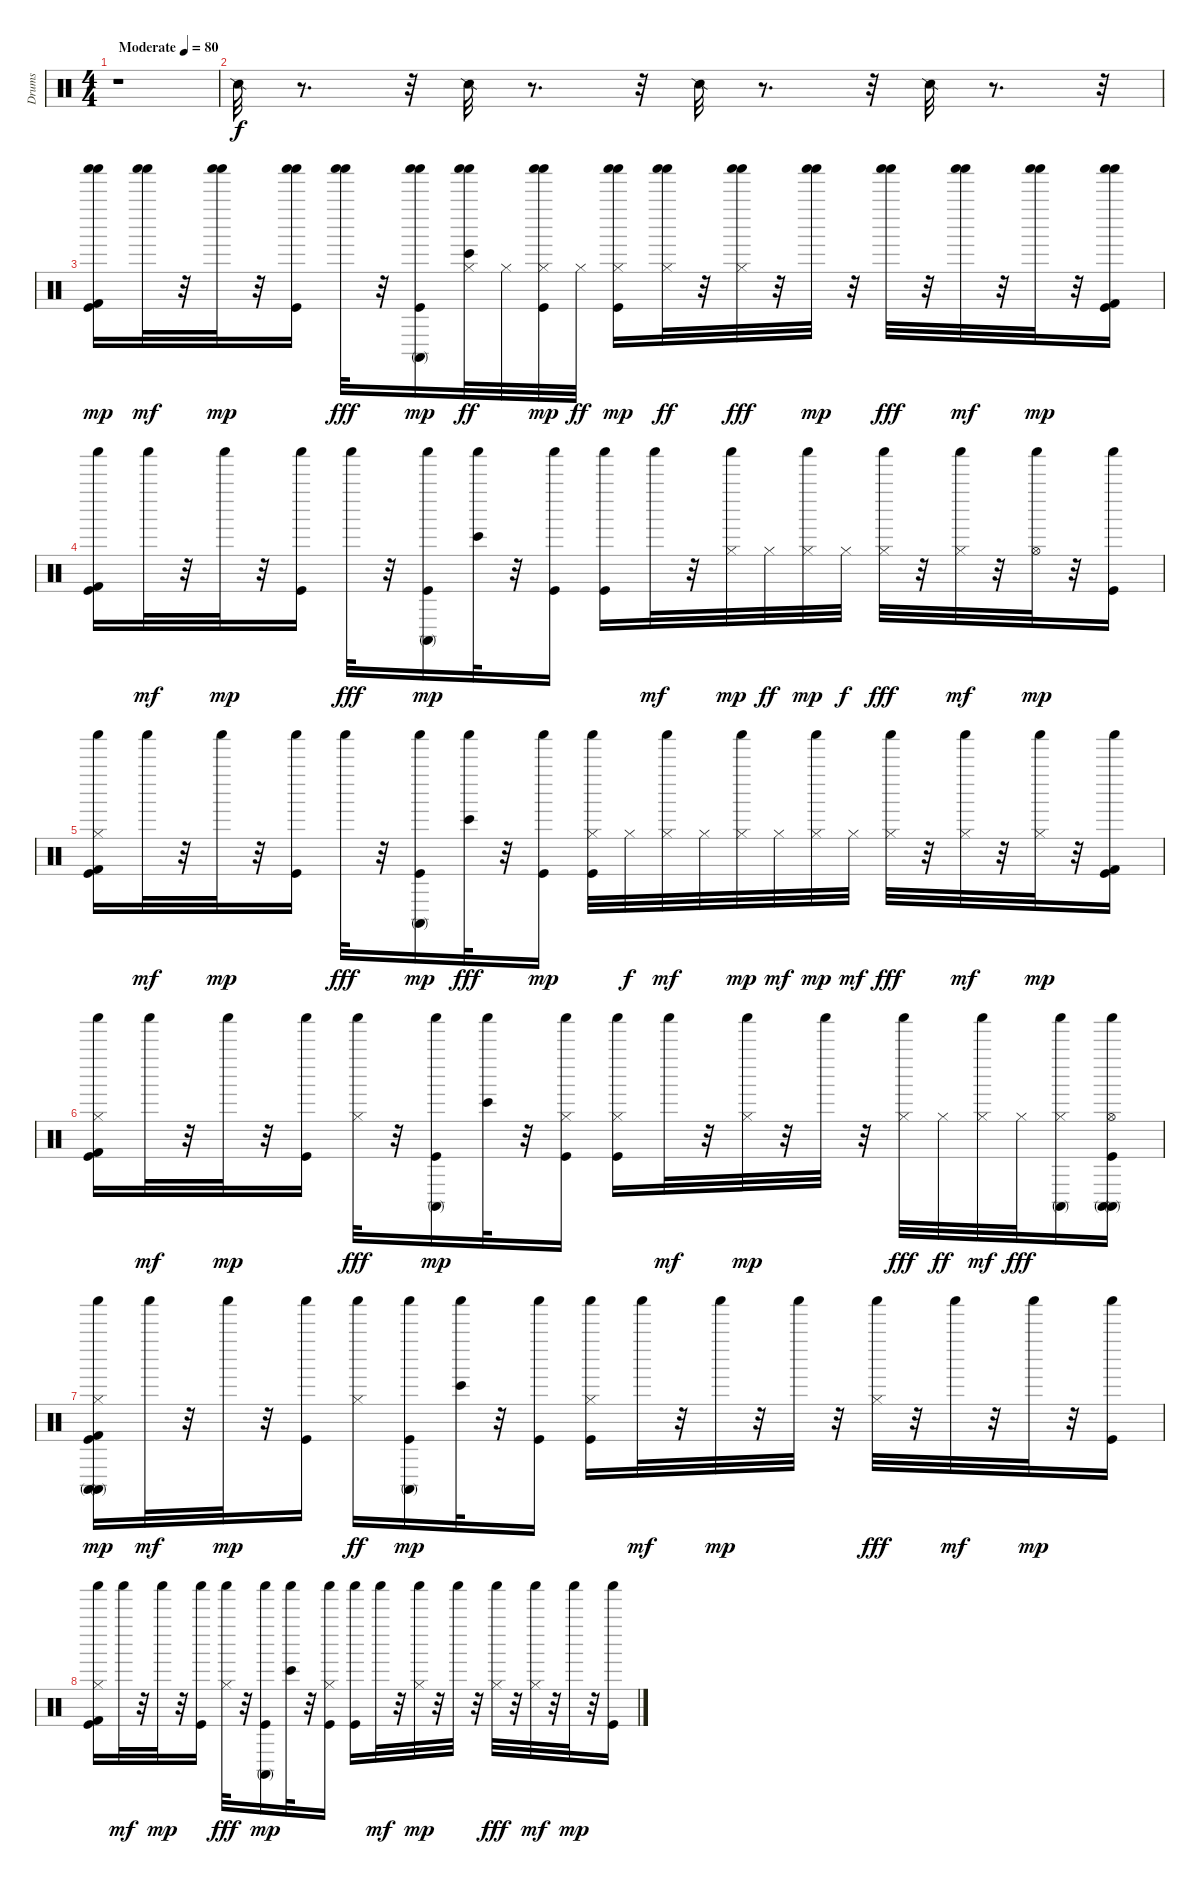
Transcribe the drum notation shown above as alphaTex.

\track ("Drums" "Drums") {instrument percussion}
\staff {score}
\articulation defaults
\ts (4 4)
\tempo (80 "Moderate")
\clef neutral
\ks c
r.1{dy f} |
"Snare (side stick) 2".32 r.8{d} r.32 "Snare (side stick) 2".32 r.8{d} r.32 "Snare (side stick) 2".32 r.8{d} r.32 "Snare (side stick) 2".32 r.8{d} r.32 |
("Shaker (hit)" "Shaker (hit)" "Kick (hit) 2" "Kick (hit)").16{dy mp} ("Shaker (hit)" "Shaker (hit)").32{dy mf} r.32 ("Shaker (hit)" "Shaker (hit)").32{dy mp} r.32 ("Shaker (hit)" "Shaker (hit)" "Kick (hit)").16 ("Shaker (hit)" "Shaker (hit)").32{dy fff} r.32 ("Shaker (hit)" "Shaker (hit)" "Conga high (mute)" "Kick (hit)").16{dy mp} ("Shaker (hit)" "Shaker (hit)" "Bongo High (hit)" "Hi-Hat (closed)").32{dy ff} "Hi-Hat (closed)".32 ("Shaker (hit)" "Shaker (hit)" "Hi-Hat (closed)" "Kick (hit)").32{dy mp} "Hi-Hat (closed)".32{dy ff} ("Shaker (hit)" "Shaker (hit)" "Hi-Hat (closed)" "Kick (hit)").16{dy mp} ("Shaker (hit)" "Shaker (hit)" "Hi-Hat (closed)").32{dy ff} r.32 ("Shaker (hit)" "Shaker (hit)" "Hi-Hat (closed)").32{dy fff} r.32 ("Shaker (hit)" "Shaker (hit)").32{dy mp} r.32 ("Shaker (hit)" "Shaker (hit)").32{dy fff} r.32 ("Shaker (hit)" "Shaker (hit)").32{dy mf} r.32 ("Shaker (hit)" "Shaker (hit)").32{dy mp} r.32 ("Shaker (hit)" "Shaker (hit)" "Kick (hit) 2" "Kick (hit)").16 |
("Kick (hit) 2" "Shaker (hit)" "Kick (hit)").16 "Shaker (hit)".32{dy mf} r.32 "Shaker (hit)".32{dy mp} r.32 ("Shaker (hit)" "Kick (hit)").16 "Shaker (hit)".32{dy fff} r.32 ("Conga high (mute)" "Shaker (hit)" "Kick (hit)").16{dy mp} ("Bongo High (hit)" "Shaker (hit)").32 r.32 ("Shaker (hit)" "Kick (hit)").16 ("Shaker (hit)" "Kick (hit)").16 "Shaker (hit)".32{dy mf} r.32 ("Hi-Hat (closed)" "Shaker (hit)").32{dy mp} "Hi-Hat (closed)".32{dy ff} ("Hi-Hat (closed)" "Shaker (hit)").32{dy mp} "Hi-Hat (closed)".32{dy f} ("Hi-Hat (closed)" "Shaker (hit)").32{dy fff} r.32 ("Hi-Hat (closed)" "Shaker (hit)").32{dy mf} r.32 ("Hi-Hat (open)" "Shaker (hit)").32{dy mp} r.32 ("Shaker (hit)" "Kick (hit)").16 |
("Kick (hit) 2" "Hi-Hat (closed)" "Shaker (hit)" "Kick (hit)").16 "Shaker (hit)".32{dy mf} r.32 "Shaker (hit)".32{dy mp} r.32 ("Shaker (hit)" "Kick (hit)").16 "Shaker (hit)".32{dy fff} r.32 ("Shaker (hit)" "Conga high (mute)" "Kick (hit)").16{dy mp} ("Shaker (hit)" "Bongo High (hit)").32{dy fff} r.32 ("Shaker (hit)" "Kick (hit)").16{dy mp} ("Hi-Hat (closed)" "Shaker (hit)" "Kick (hit)").32 "Hi-Hat (closed)".32{dy f} ("Hi-Hat (closed)" "Shaker (hit)").32{dy mf} "Hi-Hat (closed)".32 ("Hi-Hat (closed)" "Shaker (hit)").32{dy mp} "Hi-Hat (closed)".32{dy mf} ("Hi-Hat (closed)" "Shaker (hit)").32{dy mp} "Hi-Hat (closed)".32{dy mf} ("Hi-Hat (closed)" "Shaker (hit)").32{dy fff} r.32 ("Hi-Hat (closed)" "Shaker (hit)").32{dy mf} r.32 ("Hi-Hat (closed)" "Shaker (hit)").32{dy mp} r.32 ("Kick (hit) 2" "Shaker (hit)" "Kick (hit)").16 |
("Kick (hit) 2" "Hi-Hat (closed)" "Shaker (hit)" "Kick (hit)").16 "Shaker (hit)".32{dy mf} r.32 "Shaker (hit)".32{dy mp} r.32 ("Shaker (hit)" "Kick (hit)").16 ("Hi-Hat (closed)" "Shaker (hit)").32{dy fff} r.32 ("Conga high (mute)" "Shaker (hit)" "Kick (hit)").16{dy mp} ("Bongo High (hit)" "Shaker (hit)").32 r.32 ("Hi-Hat (closed)" "Shaker (hit)" "Kick (hit)").16 ("Hi-Hat (closed)" "Shaker (hit)" "Kick (hit)").16 "Shaker (hit)".32{dy mf} r.32 ("Hi-Hat (closed)" "Shaker (hit)").32{dy mp} r.32 "Shaker (hit)".32 r.32 ("Hi-Hat (closed)" "Shaker (hit)").32{dy fff} "Hi-Hat (closed)".32{dy ff} ("Hi-Hat (closed)" "Shaker (hit)").32{dy mf} "Hi-Hat (closed)".32{dy fff} ("Hi-Hat (closed)" "Shaker (hit)" "Conga high (mute)").16 ("Conga high (mute)" "Hi-Hat (open)" "Kick (hit)" "Shaker (hit)" "Conga high (mute)").16 |
("Conga high (mute)" "Conga high (mute)" "Kick (hit) 2" "Shaker (hit)" "Hi-Hat (closed)" "Kick (hit)").16{dy mp} "Shaker (hit)".32{dy mf} r.32 "Shaker (hit)".32{dy mp} r.32 ("Shaker (hit)" "Kick (hit)").16 ("Shaker (hit)" "Hi-Hat (closed)").16{dy ff} ("Conga high (mute)" "Shaker (hit)" "Kick (hit)").16{dy mp} ("Bongo High (hit)" "Shaker (hit)").32 r.32 ("Shaker (hit)" "Kick (hit)").16 ("Shaker (hit)" "Hi-Hat (closed)" "Kick (hit)").16 "Shaker (hit)".32{dy mf} r.32 "Shaker (hit)".32{dy mp} r.32 "Shaker (hit)".32 r.32 ("Shaker (hit)" "Hi-Hat (closed)").32{dy fff} r.32 "Shaker (hit)".32{dy mf} r.32 "Shaker (hit)".32{dy mp} r.32 ("Shaker (hit)" "Kick (hit)").16 |
("Kick (hit) 2" "Hi-Hat (closed)" "Shaker (hit)" "Kick (hit)").16 "Shaker (hit)".32{dy mf} r.32 "Shaker (hit)".32{dy mp} r.32 ("Shaker (hit)" "Kick (hit)").16 ("Hi-Hat (closed)" "Shaker (hit)").32{dy fff} r.32 ("Conga high (mute)" "Shaker (hit)" "Kick (hit)").16{dy mp} ("Bongo High (hit)" "Shaker (hit)").32 r.32 ("Hi-Hat (closed)" "Shaker (hit)" "Kick (hit)").16 ("Shaker (hit)" "Kick (hit)").16 "Shaker (hit)".32{dy mf} r.32 ("Hi-Hat (closed)" "Shaker (hit)").32{dy mp} r.32 "Shaker (hit)".32 r.32 ("Hi-Hat (closed)" "Shaker (hit)").32{dy fff} r.32 ("Hi-Hat (closed)" "Shaker (hit)").32{dy mf} r.32 "Shaker (hit)".32{dy mp} r.32 ("Shaker (hit)" "Kick (hit)").16
